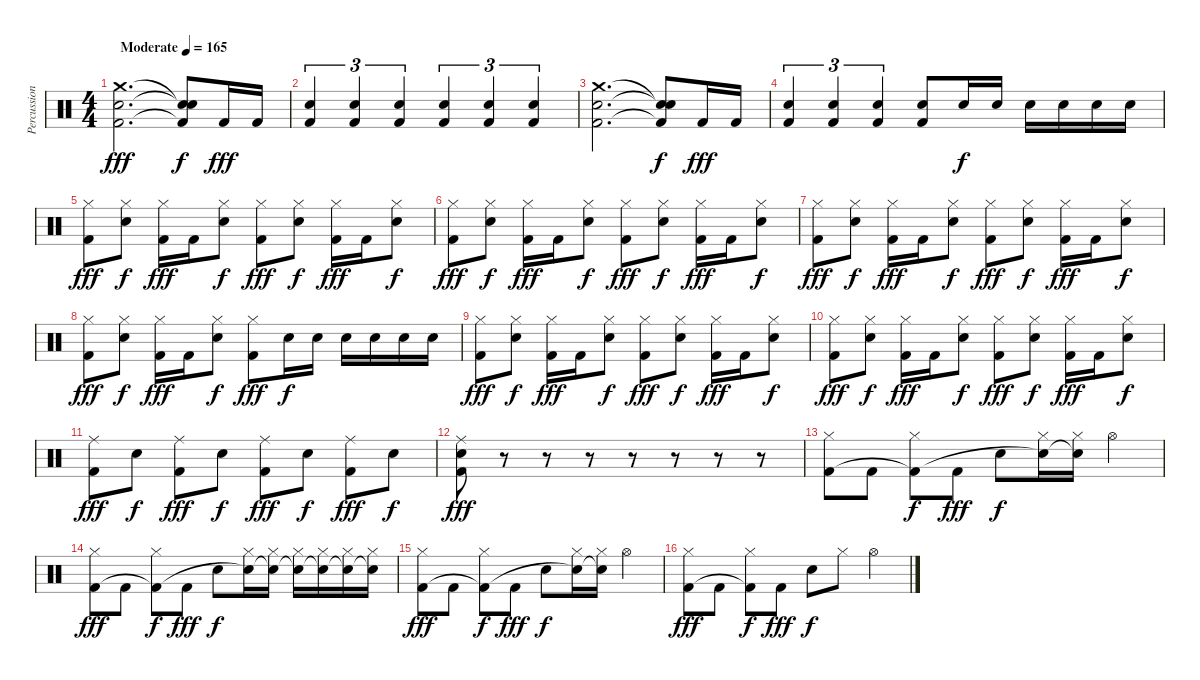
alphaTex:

\track ("Percussion" "Percussion") {instrument percussion}
\staff {score}
\articulation defaults
\ts (4 4)
\tempo (165 "Moderate")
\clef neutral
\ks c
("Crash medium (hit)" "Electric Snare (hit)" "Kick (hit) 2").2{d dy fff} ("Snare (hit)"{t} "Snare (hit)"{t} "Kick (hit) 2"{t}).8{dy f} "Kick (hit) 2".16{dy fff} "Kick (hit) 2".16 |
("Electric Snare (hit)" "Kick (hit) 2").4{tu (3 2)} ("Electric Snare (hit)" "Kick (hit) 2").4{tu (3 2)} ("Electric Snare (hit)" "Kick (hit) 2").4{tu (3 2)} ("Electric Snare (hit)" "Kick (hit) 2").4{tu (3 2)} ("Electric Snare (hit)" "Kick (hit) 2").4{tu (3 2)} ("Electric Snare (hit)" "Kick (hit) 2").4{tu (3 2)} |
("Crash medium (hit)" "Electric Snare (hit)" "Kick (hit) 2").2{d} ("Snare (hit)"{t} "Snare (hit)"{t} "Kick (hit) 2"{t}).8{dy f} "Kick (hit) 2".16{dy fff} "Kick (hit) 2".16 |
("Electric Snare (hit)" "Kick (hit) 2").4{tu (3 2)} ("Electric Snare (hit)" "Kick (hit) 2").4{tu (3 2)} ("Electric Snare (hit)" "Kick (hit) 2").4{tu (3 2)} ("Electric Snare (hit)" "Kick (hit) 2").8 "Electric Snare (hit)".16{dy f} "Electric Snare (hit)".16 "Electric Snare (hit)".16 "Electric Snare (hit)".16 "Electric Snare (hit)".16 "Electric Snare (hit)".16 |
("Hi-Hat (closed)" "Kick (hit) 2").8{dy fff} ("Hi-Hat (closed)" "Electric Snare (hit)").8{dy f} ("Hi-Hat (closed)" "Kick (hit) 2").16{dy fff} "Kick (hit) 2".16 ("Hi-Hat (closed)" "Electric Snare (hit)").8{dy f} ("Hi-Hat (closed)" "Kick (hit) 2").8{dy fff} ("Hi-Hat (closed)" "Electric Snare (hit)").8{dy f} ("Hi-Hat (closed)" "Kick (hit) 2").16{dy fff} "Kick (hit) 2".16 ("Hi-Hat (closed)" "Electric Snare (hit)").8{dy f} |
("Hi-Hat (closed)" "Kick (hit) 2").8{dy fff} ("Hi-Hat (closed)" "Electric Snare (hit)").8{dy f} ("Hi-Hat (closed)" "Kick (hit) 2").16{dy fff} "Kick (hit) 2".16 ("Hi-Hat (closed)" "Electric Snare (hit)").8{dy f} ("Hi-Hat (closed)" "Kick (hit) 2").8{dy fff} ("Hi-Hat (closed)" "Electric Snare (hit)").8{dy f} ("Hi-Hat (closed)" "Kick (hit) 2").16{dy fff} "Kick (hit) 2".16 ("Hi-Hat (closed)" "Electric Snare (hit)").8{dy f} |
("Hi-Hat (closed)" "Kick (hit) 2").8{dy fff} ("Hi-Hat (closed)" "Electric Snare (hit)").8{dy f} ("Hi-Hat (closed)" "Kick (hit) 2").16{dy fff} "Kick (hit) 2".16 ("Hi-Hat (closed)" "Electric Snare (hit)").8{dy f} ("Hi-Hat (closed)" "Kick (hit) 2").8{dy fff} ("Hi-Hat (closed)" "Electric Snare (hit)").8{dy f} ("Hi-Hat (closed)" "Kick (hit) 2").16{dy fff} "Kick (hit) 2".16 ("Hi-Hat (closed)" "Electric Snare (hit)").8{dy f} |
("Hi-Hat (closed)" "Kick (hit) 2").8{dy fff} ("Hi-Hat (closed)" "Electric Snare (hit)").8{dy f} ("Hi-Hat (closed)" "Kick (hit) 2").16{dy fff} "Kick (hit) 2".16 ("Hi-Hat (closed)" "Electric Snare (hit)").8{dy f} ("Hi-Hat (closed)" "Kick (hit) 2").8{dy fff} "Electric Snare (hit)".16{dy f} "Electric Snare (hit)".16 "Electric Snare (hit)".16 "Electric Snare (hit)".16 "Electric Snare (hit)".16 "Electric Snare (hit)".16 |
("Hi-Hat (closed)" "Kick (hit) 2").8{dy fff} ("Hi-Hat (closed)" "Electric Snare (hit)").8{dy f} ("Hi-Hat (closed)" "Kick (hit) 2").16{dy fff} "Kick (hit) 2".16 ("Hi-Hat (closed)" "Electric Snare (hit)").8{dy f} ("Hi-Hat (closed)" "Kick (hit) 2").8{dy fff} ("Hi-Hat (closed)" "Electric Snare (hit)").8{dy f} ("Hi-Hat (closed)" "Kick (hit) 2").16{dy fff} "Kick (hit) 2".16 ("Hi-Hat (closed)" "Electric Snare (hit)").8{dy f} |
("Hi-Hat (closed)" "Kick (hit) 2").8{dy fff} ("Hi-Hat (closed)" "Electric Snare (hit)").8{dy f} ("Hi-Hat (closed)" "Kick (hit) 2").16{dy fff} "Kick (hit) 2".16 ("Hi-Hat (closed)" "Electric Snare (hit)").8{dy f} ("Hi-Hat (closed)" "Kick (hit) 2").8{dy fff} ("Hi-Hat (closed)" "Electric Snare (hit)").8{dy f} ("Hi-Hat (closed)" "Kick (hit) 2").16{dy fff} "Kick (hit) 2".16 ("Hi-Hat (closed)" "Electric Snare (hit)").8{dy f} |
("Ride (middle)" "Kick (hit) 2").8{dy fff} "Electric Snare (hit)".8{dy f} ("Ride (middle)" "Kick (hit) 2").8{dy fff} "Electric Snare (hit)".8{dy f} ("Ride (middle)" "Kick (hit) 2").8{dy fff} "Electric Snare (hit)".8{dy f} ("Ride (middle)" "Kick (hit) 2").8{dy fff} "Electric Snare (hit)".8{dy f} |
("Ride (middle)" "Electric Snare (hit)" "Kick (hit) 2").8{dy fff} r.8 r.8 r.8 r.8 r.8 r.8 r.8 |
("Hi-Hat (closed)" "Kick (hit) 2").8 "Kick (hit) 2".8 ("Hi-Hat (closed)" "Kick (hit) 2"{t}).8{dy f} "Kick (hit) 2".8{dy fff} "Electric Snare (hit)".8{dy f} ("Hi-Hat (closed)" "Electric Snare (hit)"{t}).16 ("Hi-Hat (closed)" "Electric Snare (hit)"{t}).16 "Hi-Hat (open)".4 |
("Hi-Hat (closed)" "Kick (hit) 2").8{dy fff} "Kick (hit) 2".8 ("Hi-Hat (closed)" "Kick (hit) 2"{t}).8{dy f} "Kick (hit) 2".8{dy fff} "Electric Snare (hit)".8{dy f} ("Hi-Hat (closed)" "Electric Snare (hit)"{t}).16 ("Hi-Hat (closed)" "Electric Snare (hit)"{t}).16 ("Hi-Hat (closed)" "Electric Snare (hit)"{t}).16 ("Hi-Hat (closed)" "Electric Snare (hit)"{t}).16 ("Hi-Hat (closed)" "Electric Snare (hit)"{t}).16 ("Hi-Hat (closed)" "Electric Snare (hit)"{t}).16 |
("Hi-Hat (closed)" "Kick (hit) 2").8{dy fff} "Kick (hit) 2".8 ("Hi-Hat (closed)" "Kick (hit) 2"{t}).8{dy f} "Kick (hit) 2".8{dy fff} "Electric Snare (hit)".8{dy f} ("Hi-Hat (closed)" "Electric Snare (hit)"{t}).16 ("Hi-Hat (closed)" "Electric Snare (hit)"{t}).16 "Hi-Hat (open)".4 |
("Hi-Hat (closed)" "Kick (hit) 2").8{dy fff} "Kick (hit) 2".8 ("Hi-Hat (closed)" "Kick (hit) 2"{t}).8{dy f} "Kick (hit) 2".8{dy fff} "Electric Snare (hit)".8{dy f} "Hi-Hat (closed)".8 "Hi-Hat (open)".4
